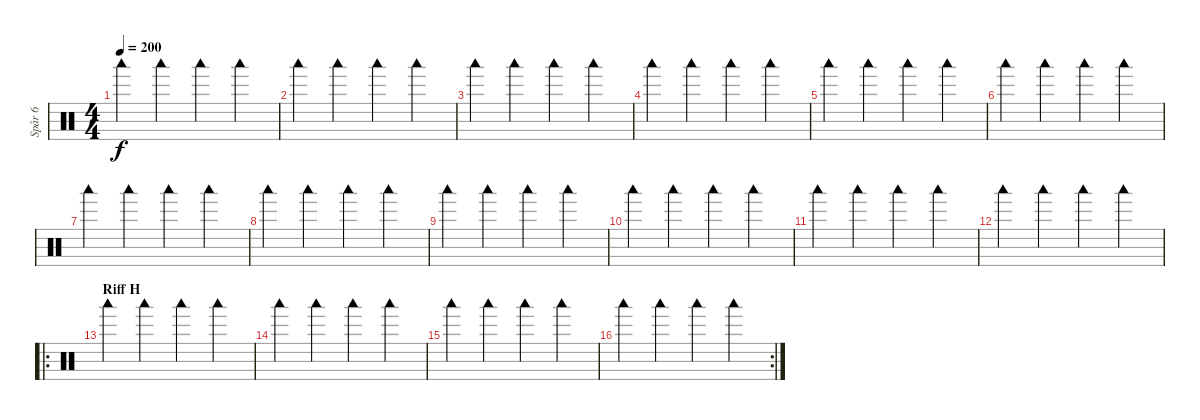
\track ("Spår 6" "Spår 6") {instrument percussion}
\staff {score}
\articulation defaults
\ts (4 4)
\tempo 200
\clef neutral
\ks c "Woodblock low (hit)".4{dy f} "Woodblock low (hit)".4 "Woodblock low (hit)".4 "Woodblock low (hit)".4
|
"Woodblock low (hit)".4 "Woodblock low (hit)".4 "Woodblock low (hit)".4 "Woodblock low (hit)".4 |
"Woodblock low (hit)".4 "Woodblock low (hit)".4 "Woodblock low (hit)".4 "Woodblock low (hit)".4 |
"Woodblock low (hit)".4 "Woodblock low (hit)".4 "Woodblock low (hit)".4 "Woodblock low (hit)".4 |
"Woodblock low (hit)".4 "Woodblock low (hit)".4 "Woodblock low (hit)".4 "Woodblock low (hit)".4 |
"Woodblock low (hit)".4 "Woodblock low (hit)".4 "Woodblock low (hit)".4 "Woodblock low (hit)".4 |
"Woodblock low (hit)".4 "Woodblock low (hit)".4 "Woodblock low (hit)".4 "Woodblock low (hit)".4 |
"Woodblock low (hit)".4 "Woodblock low (hit)".4 "Woodblock low (hit)".4 "Woodblock low (hit)".4 |
"Woodblock low (hit)".4 "Woodblock low (hit)".4 "Woodblock low (hit)".4 "Woodblock low (hit)".4 |
"Woodblock low (hit)".4 "Woodblock low (hit)".4 "Woodblock low (hit)".4 "Woodblock low (hit)".4 |
"Woodblock low (hit)".4 "Woodblock low (hit)".4 "Woodblock low (hit)".4 "Woodblock low (hit)".4 |
"Woodblock low (hit)".4 "Woodblock low (hit)".4 "Woodblock low (hit)".4 "Woodblock low (hit)".4 |
\ro
\section ("" "Riff H")
"Woodblock low (hit)".4 "Woodblock low (hit)".4 "Woodblock low (hit)".4 "Woodblock low (hit)".4 |
"Woodblock low (hit)".4 "Woodblock low (hit)".4 "Woodblock low (hit)".4 "Woodblock low (hit)".4 |
"Woodblock low (hit)".4 "Woodblock low (hit)".4 "Woodblock low (hit)".4 "Woodblock low (hit)".4 |
\rc 2 "Woodblock low (hit)".4 "Woodblock low (hit)".4 "Woodblock low (hit)".4 "Woodblock low (hit)".4
